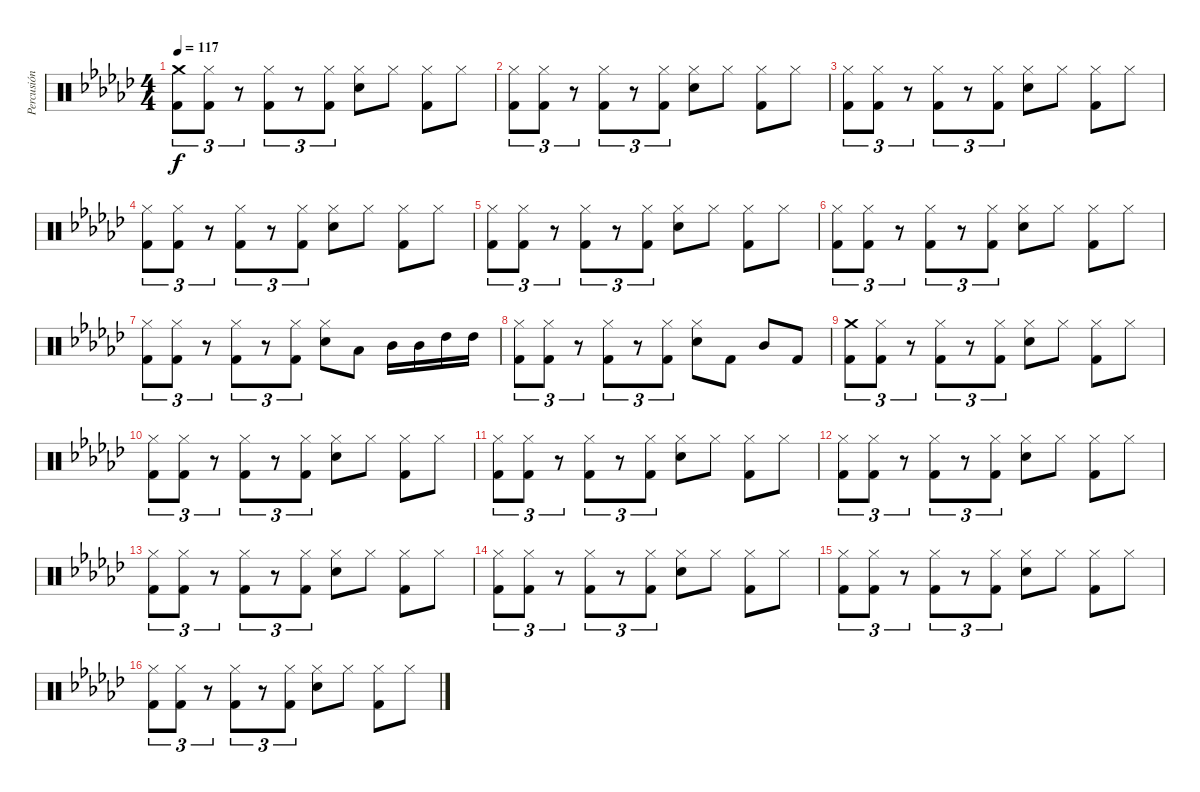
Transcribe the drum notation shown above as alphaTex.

\track ("Percusión" "Percusión") {instrument percussion}
\staff {score}
\articulation defaults
\ts (4 4)
\tempo 117
\clef neutral
\ks ebminor
("Kick (hit) 2" "Crash medium (hit)").8{tu (3 2) dy f} ("Kick (hit) 2" "Hi-Hat (closed)").8{tu (3 2)} r.8{tu (3 2)} ("Kick (hit) 2" "Hi-Hat (closed)").8{tu (3 2)} r.8{tu (3 2)} ("Kick (hit) 2" "Hi-Hat (closed)").8{tu (3 2)} ("Electric Snare (hit)" "Hi-Hat (closed)").8 "Hi-Hat (closed)".8 ("Kick (hit) 2" "Hi-Hat (closed)").8 "Hi-Hat (closed)".8 |
("Kick (hit) 2" "Hi-Hat (closed)").8{tu (3 2)} ("Kick (hit) 2" "Hi-Hat (closed)").8{tu (3 2)} r.8{tu (3 2)} ("Kick (hit) 2" "Hi-Hat (closed)").8{tu (3 2)} r.8{tu (3 2)} ("Kick (hit) 2" "Hi-Hat (closed)").8{tu (3 2)} ("Electric Snare (hit)" "Hi-Hat (closed)").8 "Hi-Hat (closed)".8 ("Kick (hit) 2" "Hi-Hat (closed)").8 "Hi-Hat (closed)".8 |
("Kick (hit) 2" "Hi-Hat (closed)").8{tu (3 2)} ("Kick (hit) 2" "Hi-Hat (closed)").8{tu (3 2)} r.8{tu (3 2)} ("Kick (hit) 2" "Hi-Hat (closed)").8{tu (3 2)} r.8{tu (3 2)} ("Kick (hit) 2" "Hi-Hat (closed)").8{tu (3 2)} ("Electric Snare (hit)" "Hi-Hat (closed)").8 "Hi-Hat (closed)".8 ("Kick (hit) 2" "Hi-Hat (closed)").8 "Hi-Hat (closed)".8 |
("Kick (hit) 2" "Hi-Hat (closed)").8{tu (3 2)} ("Kick (hit) 2" "Hi-Hat (closed)").8{tu (3 2)} r.8{tu (3 2)} ("Kick (hit) 2" "Hi-Hat (closed)").8{tu (3 2)} r.8{tu (3 2)} ("Kick (hit) 2" "Hi-Hat (closed)").8{tu (3 2)} ("Electric Snare (hit)" "Hi-Hat (closed)").8 "Hi-Hat (closed)".8 ("Kick (hit) 2" "Hi-Hat (closed)").8 "Hi-Hat (closed)".8 |
("Kick (hit) 2" "Hi-Hat (closed)").8{tu (3 2)} ("Kick (hit) 2" "Hi-Hat (closed)").8{tu (3 2)} r.8{tu (3 2)} ("Kick (hit) 2" "Hi-Hat (closed)").8{tu (3 2)} r.8{tu (3 2)} ("Kick (hit) 2" "Hi-Hat (closed)").8{tu (3 2)} ("Electric Snare (hit)" "Hi-Hat (closed)").8 "Hi-Hat (closed)".8 ("Kick (hit) 2" "Hi-Hat (closed)").8 "Hi-Hat (closed)".8 |
("Kick (hit) 2" "Hi-Hat (closed)").8{tu (3 2)} ("Kick (hit) 2" "Hi-Hat (closed)").8{tu (3 2)} r.8{tu (3 2)} ("Kick (hit) 2" "Hi-Hat (closed)").8{tu (3 2)} r.8{tu (3 2)} ("Kick (hit) 2" "Hi-Hat (closed)").8{tu (3 2)} ("Electric Snare (hit)" "Hi-Hat (closed)").8 "Hi-Hat (closed)".8 ("Kick (hit) 2" "Hi-Hat (closed)").8 "Hi-Hat (closed)".8 |
("Kick (hit) 2" "Hi-Hat (closed)").8{tu (3 2)} ("Kick (hit) 2" "Hi-Hat (closed)").8{tu (3 2)} r.8{tu (3 2)} ("Kick (hit) 2" "Hi-Hat (closed)").8{tu (3 2)} r.8{tu (3 2)} ("Kick (hit) 2" "Hi-Hat (closed)").8{tu (3 2)} ("Electric Snare (hit)" "Hi-Hat (closed)").8 "Low Tom (hit)".8 "Mid Tom (hit)".16 "Mid Tom (hit)".16 "High Tom (hit)".16 "High Tom (hit)".16 |
("Kick (hit) 2" "Hi-Hat (closed)").8{tu (3 2)} ("Kick (hit) 2" "Hi-Hat (closed)").8{tu (3 2)} r.8{tu (3 2)} ("Kick (hit) 2" "Hi-Hat (closed)").8{tu (3 2)} r.8{tu (3 2)} ("Kick (hit) 2" "Hi-Hat (closed)").8{tu (3 2)} ("Electric Snare (hit)" "Hi-Hat (closed)").8 "Kick (hit) 2".8 "Mid Tom (hit)".8 "Kick (hit) 2".8 |
("Kick (hit) 2" "Crash medium (hit)").8{tu (3 2)} ("Kick (hit) 2" "Hi-Hat (closed)").8{tu (3 2)} r.8{tu (3 2)} ("Kick (hit) 2" "Hi-Hat (closed)").8{tu (3 2)} r.8{tu (3 2)} ("Kick (hit) 2" "Hi-Hat (closed)").8{tu (3 2)} ("Electric Snare (hit)" "Hi-Hat (closed)").8 "Hi-Hat (closed)".8 ("Kick (hit) 2" "Hi-Hat (closed)").8 "Hi-Hat (closed)".8 |
("Kick (hit) 2" "Hi-Hat (closed)").8{tu (3 2)} ("Kick (hit) 2" "Hi-Hat (closed)").8{tu (3 2)} r.8{tu (3 2)} ("Kick (hit) 2" "Hi-Hat (closed)").8{tu (3 2)} r.8{tu (3 2)} ("Kick (hit) 2" "Hi-Hat (closed)").8{tu (3 2)} ("Electric Snare (hit)" "Hi-Hat (closed)").8 "Hi-Hat (closed)".8 ("Kick (hit) 2" "Hi-Hat (closed)").8 "Hi-Hat (closed)".8 |
("Kick (hit) 2" "Hi-Hat (closed)").8{tu (3 2)} ("Kick (hit) 2" "Hi-Hat (closed)").8{tu (3 2)} r.8{tu (3 2)} ("Kick (hit) 2" "Hi-Hat (closed)").8{tu (3 2)} r.8{tu (3 2)} ("Kick (hit) 2" "Hi-Hat (closed)").8{tu (3 2)} ("Electric Snare (hit)" "Hi-Hat (closed)").8 "Hi-Hat (closed)".8 ("Kick (hit) 2" "Hi-Hat (closed)").8 "Hi-Hat (closed)".8 |
("Kick (hit) 2" "Hi-Hat (closed)").8{tu (3 2)} ("Kick (hit) 2" "Hi-Hat (closed)").8{tu (3 2)} r.8{tu (3 2)} ("Kick (hit) 2" "Hi-Hat (closed)").8{tu (3 2)} r.8{tu (3 2)} ("Kick (hit) 2" "Hi-Hat (closed)").8{tu (3 2)} ("Electric Snare (hit)" "Hi-Hat (closed)").8 "Hi-Hat (closed)".8 ("Kick (hit) 2" "Hi-Hat (closed)").8 "Hi-Hat (closed)".8 |
("Kick (hit) 2" "Hi-Hat (closed)").8{tu (3 2)} ("Kick (hit) 2" "Hi-Hat (closed)").8{tu (3 2)} r.8{tu (3 2)} ("Kick (hit) 2" "Hi-Hat (closed)").8{tu (3 2)} r.8{tu (3 2)} ("Kick (hit) 2" "Hi-Hat (closed)").8{tu (3 2)} ("Electric Snare (hit)" "Hi-Hat (closed)").8 "Hi-Hat (closed)".8 ("Kick (hit) 2" "Hi-Hat (closed)").8 "Hi-Hat (closed)".8 |
("Kick (hit) 2" "Hi-Hat (closed)").8{tu (3 2)} ("Kick (hit) 2" "Hi-Hat (closed)").8{tu (3 2)} r.8{tu (3 2)} ("Kick (hit) 2" "Hi-Hat (closed)").8{tu (3 2)} r.8{tu (3 2)} ("Kick (hit) 2" "Hi-Hat (closed)").8{tu (3 2)} ("Electric Snare (hit)" "Hi-Hat (closed)").8 "Hi-Hat (closed)".8 ("Kick (hit) 2" "Hi-Hat (closed)").8 "Hi-Hat (closed)".8 |
("Kick (hit) 2" "Hi-Hat (closed)").8{tu (3 2)} ("Kick (hit) 2" "Hi-Hat (closed)").8{tu (3 2)} r.8{tu (3 2)} ("Kick (hit) 2" "Hi-Hat (closed)").8{tu (3 2)} r.8{tu (3 2)} ("Kick (hit) 2" "Hi-Hat (closed)").8{tu (3 2)} ("Electric Snare (hit)" "Hi-Hat (closed)").8 "Hi-Hat (closed)".8 ("Kick (hit) 2" "Hi-Hat (closed)").8 "Hi-Hat (closed)".8 |
("Kick (hit) 2" "Hi-Hat (closed)").8{tu (3 2)} ("Kick (hit) 2" "Hi-Hat (closed)").8{tu (3 2)} r.8{tu (3 2)} ("Kick (hit) 2" "Hi-Hat (closed)").8{tu (3 2)} r.8{tu (3 2)} ("Kick (hit) 2" "Hi-Hat (closed)").8{tu (3 2)} ("Electric Snare (hit)" "Hi-Hat (closed)").8 "Hi-Hat (closed)".8 ("Kick (hit) 2" "Hi-Hat (closed)").8 "Hi-Hat (closed)".8
